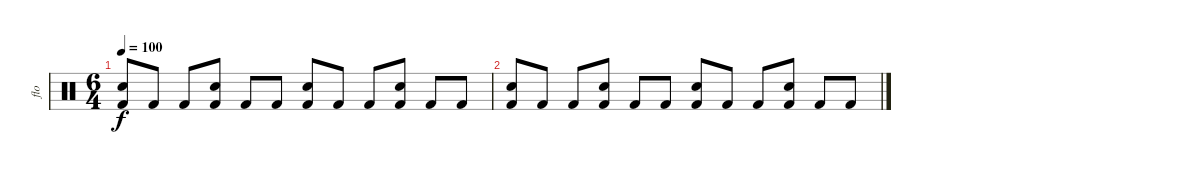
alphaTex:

\track ("flo" "flo") {instrument percussion}
\staff {score}
\articulation defaults
\ts (6 4)
\tempo 100
\clef neutral
\ks c
("Kick (hit) 2" "Electric Snare (hit)").8{dy f} "Kick (hit) 2".8 "Kick (hit) 2".8 ("Kick (hit) 2" "Electric Snare (hit)").8 "Kick (hit) 2".8 "Kick (hit) 2".8 ("Kick (hit) 2" "Electric Snare (hit)").8 "Kick (hit) 2".8 "Kick (hit) 2".8 ("Kick (hit) 2" "Electric Snare (hit)").8 "Kick (hit) 2".8 "Kick (hit) 2".8 |
("Kick (hit) 2" "Electric Snare (hit)").8 "Kick (hit) 2".8 "Kick (hit) 2".8 ("Kick (hit) 2" "Electric Snare (hit)").8 "Kick (hit) 2".8 "Kick (hit) 2".8 ("Kick (hit) 2" "Electric Snare (hit)").8 "Kick (hit) 2".8 "Kick (hit) 2".8 ("Kick (hit) 2" "Electric Snare (hit)").8 "Kick (hit) 2".8 "Kick (hit) 2".8
